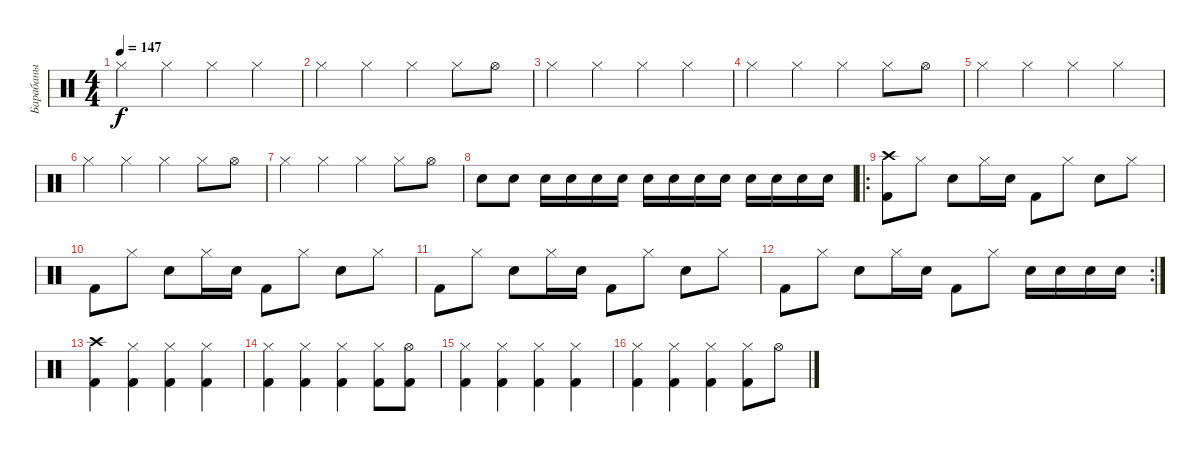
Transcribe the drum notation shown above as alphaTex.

\track ("Барабаны" "Барабаны") {instrument percussion}
\staff {score}
\articulation defaults
\ts (4 4)
\tempo 147
\clef neutral
\ks c "Hi-Hat (closed)".4{dy f} "Hi-Hat (closed)".4 "Hi-Hat (closed)".4 "Hi-Hat (closed)".4
|
"Hi-Hat (closed)".4 "Hi-Hat (closed)".4 "Hi-Hat (closed)".4 "Hi-Hat (closed)".8 "Hi-Hat (open)".8 |
"Hi-Hat (closed)".4 "Hi-Hat (closed)".4 "Hi-Hat (closed)".4 "Hi-Hat (closed)".4 |
"Hi-Hat (closed)".4 "Hi-Hat (closed)".4 "Hi-Hat (closed)".4 "Hi-Hat (closed)".8 "Hi-Hat (open)".8 |
"Hi-Hat (closed)".4 "Hi-Hat (closed)".4 "Hi-Hat (closed)".4 "Hi-Hat (closed)".4 |
"Hi-Hat (closed)".4 "Hi-Hat (closed)".4 "Hi-Hat (closed)".4 "Hi-Hat (closed)".8 "Hi-Hat (open)".8 |
"Hi-Hat (closed)".4 "Hi-Hat (closed)".4 "Hi-Hat (closed)".4 "Hi-Hat (closed)".8 "Hi-Hat (open)".8 |
"Electric Snare (hit)".8 "Electric Snare (hit)".8 "Electric Snare (hit)".16 "Electric Snare (hit)".16 "Electric Snare (hit)".16 "Electric Snare (hit)".16 "Electric Snare (hit)".16 "Electric Snare (hit)".16 "Electric Snare (hit)".16 "Electric Snare (hit)".16 "Electric Snare (hit)".16 "Electric Snare (hit)".16 "Electric Snare (hit)".16 "Electric Snare (hit)".16 |
\ro
("Kick (hit) 2" "Crash high (hit)").8 "Hi-Hat (closed)".8 "Electric Snare (hit)".8 "Hi-Hat (closed)".16 "Electric Snare (hit)".16 "Kick (hit) 2".8 "Hi-Hat (closed)".8 "Electric Snare (hit)".8 "Hi-Hat (closed)".8 |
"Kick (hit) 2".8 "Hi-Hat (closed)".8 "Electric Snare (hit)".8 "Hi-Hat (closed)".16 "Electric Snare (hit)".16 "Kick (hit) 2".8 "Hi-Hat (closed)".8 "Electric Snare (hit)".8 "Hi-Hat (closed)".8 |
"Kick (hit) 2".8 "Hi-Hat (closed)".8 "Electric Snare (hit)".8 "Hi-Hat (closed)".16 "Electric Snare (hit)".16 "Kick (hit) 2".8 "Hi-Hat (closed)".8 "Electric Snare (hit)".8 "Hi-Hat (closed)".8 |
\rc 2 "Kick (hit) 2".8 "Hi-Hat (closed)".8 "Electric Snare (hit)".8 "Hi-Hat (closed)".16 "Electric Snare (hit)".16 "Kick (hit) 2".8 "Hi-Hat (closed)".8 "Electric Snare (hit)".16 "Electric Snare (hit)".16 "Electric Snare (hit)".16 "Electric Snare (hit)".16
|
("Kick (hit) 2" "Crash high (hit)").4 ("Kick (hit) 2" "Hi-Hat (closed)").4 ("Kick (hit) 2" "Hi-Hat (closed)").4 ("Kick (hit) 2" "Hi-Hat (closed)").4 |
("Kick (hit) 2" "Hi-Hat (closed)").4 ("Kick (hit) 2" "Hi-Hat (closed)").4 ("Kick (hit) 2" "Hi-Hat (closed)").4 ("Kick (hit) 2" "Hi-Hat (closed)").8 ("Kick (hit) 2" "Hi-Hat (open)").8 |
("Kick (hit) 2" "Hi-Hat (closed)").4 ("Kick (hit) 2" "Hi-Hat (closed)").4 ("Kick (hit) 2" "Hi-Hat (closed)").4 ("Kick (hit) 2" "Hi-Hat (closed)").4 |
("Kick (hit) 2" "Hi-Hat (closed)").4 ("Kick (hit) 2" "Hi-Hat (closed)").4 ("Kick (hit) 2" "Hi-Hat (closed)").4 ("Kick (hit) 2" "Hi-Hat (closed)").8 "Hi-Hat (open)".8
